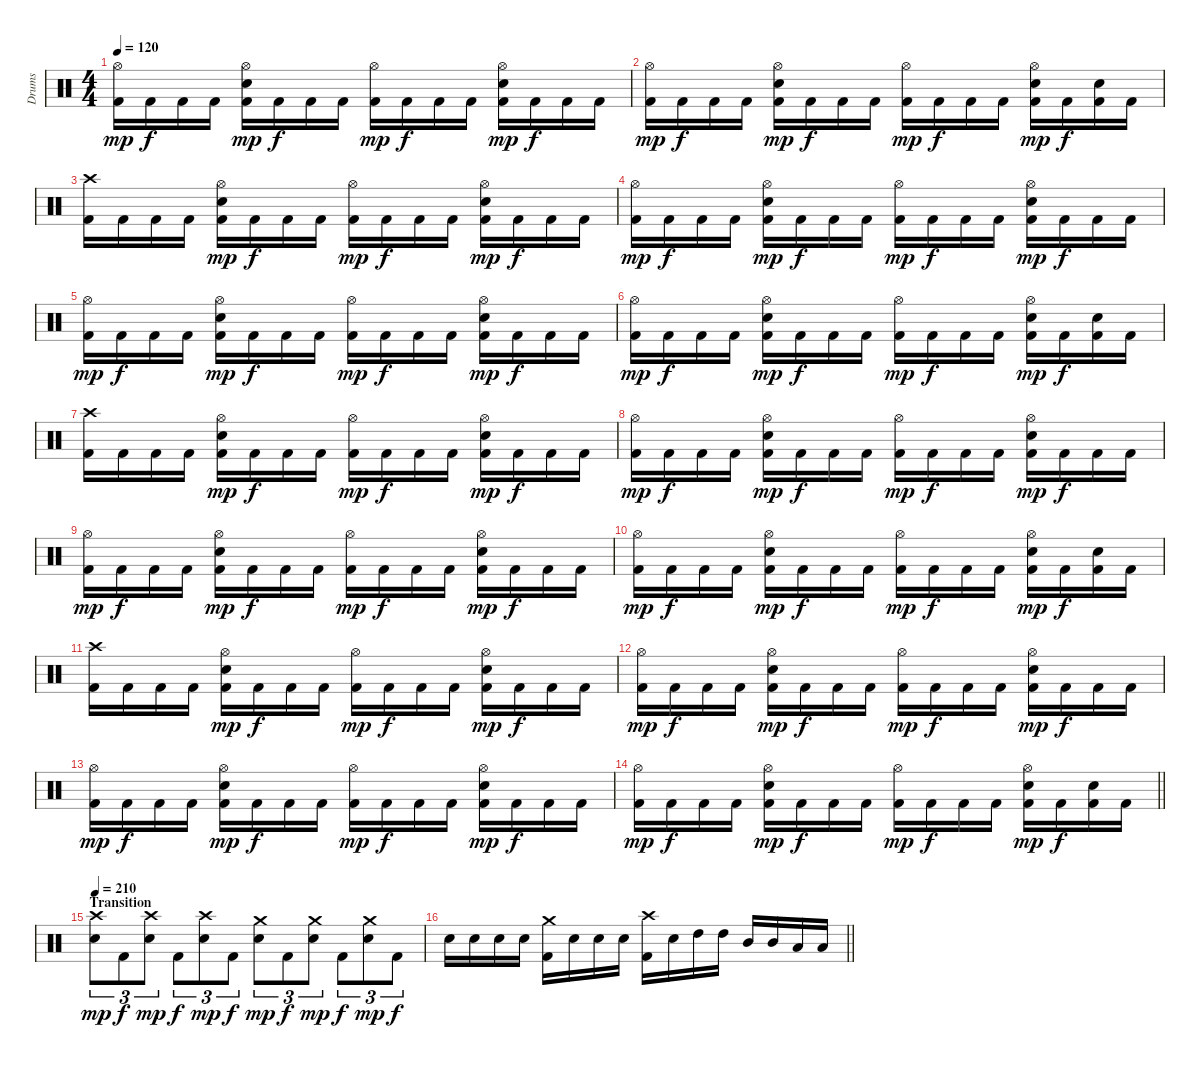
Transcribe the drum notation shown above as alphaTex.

\track ("Drums" "Drums") {instrument percussion}
\staff {score}
\articulation defaults
\ts (4 4)
\tempo 120
\clef neutral
\ks c
("Hi-Hat (open)" "Kick (hit) 2").16{dy mp} "Kick (hit) 2".16{dy f} "Kick (hit) 2".16 "Kick (hit) 2".16 ("Hi-Hat (open)" "Snare (hit) 2" "Kick (hit) 2").16{dy mp} "Kick (hit) 2".16{dy f} "Kick (hit) 2".16 "Kick (hit) 2".16 ("Hi-Hat (open)" "Kick (hit) 2").16{dy mp} "Kick (hit) 2".16{dy f} "Kick (hit) 2".16 "Kick (hit) 2".16 ("Hi-Hat (open)" "Snare (hit) 2" "Kick (hit) 2").16{dy mp} "Kick (hit) 2".16{dy f} "Kick (hit) 2".16 "Kick (hit) 2".16 |
("Hi-Hat (open)" "Kick (hit) 2").16{dy mp} "Kick (hit) 2".16{dy f} "Kick (hit) 2".16 "Kick (hit) 2".16 ("Hi-Hat (open)" "Snare (hit) 2" "Kick (hit) 2").16{dy mp} "Kick (hit) 2".16{dy f} "Kick (hit) 2".16 "Kick (hit) 2".16 ("Hi-Hat (open)" "Kick (hit) 2").16{dy mp} "Kick (hit) 2".16{dy f} "Kick (hit) 2".16 "Kick (hit) 2".16 ("Hi-Hat (open)" "Snare (hit) 2" "Kick (hit) 2").16{dy mp} "Kick (hit) 2".16{dy f} ("Snare (hit) 2" "Kick (hit) 2").16 "Kick (hit) 2".16 |
("Crash high (hit)" "Kick (hit) 2").16 "Kick (hit) 2".16 "Kick (hit) 2".16 "Kick (hit) 2".16 ("Hi-Hat (open)" "Snare (hit) 2" "Kick (hit) 2").16{dy mp} "Kick (hit) 2".16{dy f} "Kick (hit) 2".16 "Kick (hit) 2".16 ("Hi-Hat (open)" "Kick (hit) 2").16{dy mp} "Kick (hit) 2".16{dy f} "Kick (hit) 2".16 "Kick (hit) 2".16 ("Hi-Hat (open)" "Snare (hit) 2" "Kick (hit) 2").16{dy mp} "Kick (hit) 2".16{dy f} "Kick (hit) 2".16 "Kick (hit) 2".16 |
("Hi-Hat (open)" "Kick (hit) 2").16{dy mp} "Kick (hit) 2".16{dy f} "Kick (hit) 2".16 "Kick (hit) 2".16 ("Hi-Hat (open)" "Snare (hit) 2" "Kick (hit) 2").16{dy mp} "Kick (hit) 2".16{dy f} "Kick (hit) 2".16 "Kick (hit) 2".16 ("Hi-Hat (open)" "Kick (hit) 2").16{dy mp} "Kick (hit) 2".16{dy f} "Kick (hit) 2".16 "Kick (hit) 2".16 ("Hi-Hat (open)" "Snare (hit) 2" "Kick (hit) 2").16{dy mp} "Kick (hit) 2".16{dy f} "Kick (hit) 2".16 "Kick (hit) 2".16 |
("Hi-Hat (open)" "Kick (hit) 2").16{dy mp} "Kick (hit) 2".16{dy f} "Kick (hit) 2".16 "Kick (hit) 2".16 ("Hi-Hat (open)" "Snare (hit) 2" "Kick (hit) 2").16{dy mp} "Kick (hit) 2".16{dy f} "Kick (hit) 2".16 "Kick (hit) 2".16 ("Hi-Hat (open)" "Kick (hit) 2").16{dy mp} "Kick (hit) 2".16{dy f} "Kick (hit) 2".16 "Kick (hit) 2".16 ("Hi-Hat (open)" "Snare (hit) 2" "Kick (hit) 2").16{dy mp} "Kick (hit) 2".16{dy f} "Kick (hit) 2".16 "Kick (hit) 2".16 |
("Hi-Hat (open)" "Kick (hit) 2").16{dy mp} "Kick (hit) 2".16{dy f} "Kick (hit) 2".16 "Kick (hit) 2".16 ("Hi-Hat (open)" "Snare (hit) 2" "Kick (hit) 2").16{dy mp} "Kick (hit) 2".16{dy f} "Kick (hit) 2".16 "Kick (hit) 2".16 ("Hi-Hat (open)" "Kick (hit) 2").16{dy mp} "Kick (hit) 2".16{dy f} "Kick (hit) 2".16 "Kick (hit) 2".16 ("Hi-Hat (open)" "Snare (hit) 2" "Kick (hit) 2").16{dy mp} "Kick (hit) 2".16{dy f} ("Snare (hit) 2" "Kick (hit) 2").16 "Kick (hit) 2".16 |
("Crash high (hit)" "Kick (hit) 2").16 "Kick (hit) 2".16 "Kick (hit) 2".16 "Kick (hit) 2".16 ("Hi-Hat (open)" "Snare (hit) 2" "Kick (hit) 2").16{dy mp} "Kick (hit) 2".16{dy f} "Kick (hit) 2".16 "Kick (hit) 2".16 ("Hi-Hat (open)" "Kick (hit) 2").16{dy mp} "Kick (hit) 2".16{dy f} "Kick (hit) 2".16 "Kick (hit) 2".16 ("Hi-Hat (open)" "Snare (hit) 2" "Kick (hit) 2").16{dy mp} "Kick (hit) 2".16{dy f} "Kick (hit) 2".16 "Kick (hit) 2".16 |
("Hi-Hat (open)" "Kick (hit) 2").16{dy mp} "Kick (hit) 2".16{dy f} "Kick (hit) 2".16 "Kick (hit) 2".16 ("Hi-Hat (open)" "Snare (hit) 2" "Kick (hit) 2").16{dy mp} "Kick (hit) 2".16{dy f} "Kick (hit) 2".16 "Kick (hit) 2".16 ("Hi-Hat (open)" "Kick (hit) 2").16{dy mp} "Kick (hit) 2".16{dy f} "Kick (hit) 2".16 "Kick (hit) 2".16 ("Hi-Hat (open)" "Snare (hit) 2" "Kick (hit) 2").16{dy mp} "Kick (hit) 2".16{dy f} "Kick (hit) 2".16 "Kick (hit) 2".16 |
("Hi-Hat (open)" "Kick (hit) 2").16{dy mp} "Kick (hit) 2".16{dy f} "Kick (hit) 2".16 "Kick (hit) 2".16 ("Hi-Hat (open)" "Snare (hit) 2" "Kick (hit) 2").16{dy mp} "Kick (hit) 2".16{dy f} "Kick (hit) 2".16 "Kick (hit) 2".16 ("Hi-Hat (open)" "Kick (hit) 2").16{dy mp} "Kick (hit) 2".16{dy f} "Kick (hit) 2".16 "Kick (hit) 2".16 ("Hi-Hat (open)" "Snare (hit) 2" "Kick (hit) 2").16{dy mp} "Kick (hit) 2".16{dy f} "Kick (hit) 2".16 "Kick (hit) 2".16 |
("Hi-Hat (open)" "Kick (hit) 2").16{dy mp} "Kick (hit) 2".16{dy f} "Kick (hit) 2".16 "Kick (hit) 2".16 ("Hi-Hat (open)" "Snare (hit) 2" "Kick (hit) 2").16{dy mp} "Kick (hit) 2".16{dy f} "Kick (hit) 2".16 "Kick (hit) 2".16 ("Hi-Hat (open)" "Kick (hit) 2").16{dy mp} "Kick (hit) 2".16{dy f} "Kick (hit) 2".16 "Kick (hit) 2".16 ("Hi-Hat (open)" "Snare (hit) 2" "Kick (hit) 2").16{dy mp} "Kick (hit) 2".16{dy f} ("Snare (hit) 2" "Kick (hit) 2").16 "Kick (hit) 2".16 |
("Crash high (hit)" "Kick (hit) 2").16 "Kick (hit) 2".16 "Kick (hit) 2".16 "Kick (hit) 2".16 ("Hi-Hat (open)" "Snare (hit) 2" "Kick (hit) 2").16{dy mp} "Kick (hit) 2".16{dy f} "Kick (hit) 2".16 "Kick (hit) 2".16 ("Hi-Hat (open)" "Kick (hit) 2").16{dy mp} "Kick (hit) 2".16{dy f} "Kick (hit) 2".16 "Kick (hit) 2".16 ("Hi-Hat (open)" "Snare (hit) 2" "Kick (hit) 2").16{dy mp} "Kick (hit) 2".16{dy f} "Kick (hit) 2".16 "Kick (hit) 2".16 |
("Hi-Hat (open)" "Kick (hit) 2").16{dy mp} "Kick (hit) 2".16{dy f} "Kick (hit) 2".16 "Kick (hit) 2".16 ("Hi-Hat (open)" "Snare (hit) 2" "Kick (hit) 2").16{dy mp} "Kick (hit) 2".16{dy f} "Kick (hit) 2".16 "Kick (hit) 2".16 ("Hi-Hat (open)" "Kick (hit) 2").16{dy mp} "Kick (hit) 2".16{dy f} "Kick (hit) 2".16 "Kick (hit) 2".16 ("Hi-Hat (open)" "Snare (hit) 2" "Kick (hit) 2").16{dy mp} "Kick (hit) 2".16{dy f} "Kick (hit) 2".16 "Kick (hit) 2".16 |
("Hi-Hat (open)" "Kick (hit) 2").16{dy mp} "Kick (hit) 2".16{dy f} "Kick (hit) 2".16 "Kick (hit) 2".16 ("Hi-Hat (open)" "Snare (hit) 2" "Kick (hit) 2").16{dy mp} "Kick (hit) 2".16{dy f} "Kick (hit) 2".16 "Kick (hit) 2".16 ("Hi-Hat (open)" "Kick (hit) 2").16{dy mp} "Kick (hit) 2".16{dy f} "Kick (hit) 2".16 "Kick (hit) 2".16 ("Hi-Hat (open)" "Snare (hit) 2" "Kick (hit) 2").16{dy mp} "Kick (hit) 2".16{dy f} "Kick (hit) 2".16 "Kick (hit) 2".16 |
\barLineRight lightlight
("Hi-Hat (open)" "Kick (hit) 2").16{dy mp} "Kick (hit) 2".16{dy f} "Kick (hit) 2".16 "Kick (hit) 2".16 ("Hi-Hat (open)" "Snare (hit) 2" "Kick (hit) 2").16{dy mp} "Kick (hit) 2".16{dy f} "Kick (hit) 2".16 "Kick (hit) 2".16 ("Hi-Hat (open)" "Kick (hit) 2").16{dy mp} "Kick (hit) 2".16{dy f} "Kick (hit) 2".16 "Kick (hit) 2".16 ("Hi-Hat (open)" "Snare (hit) 2" "Kick (hit) 2").16{dy mp} "Kick (hit) 2".16{dy f} ("Snare (hit) 2" "Kick (hit) 2").16 "Kick (hit) 2".16 |
\section ("" "Transition")
\tempo 210
("Crash high (hit)" "Snare (hit) 2").8{tu (3 2) dy mp} "Kick (hit) 2".8{tu (3 2) dy f} ("Crash high (hit)" "Snare (hit) 2").8{tu (3 2) dy mp} "Kick (hit) 2".8{tu (3 2) dy f} ("Crash high (hit)" "Snare (hit) 2").8{tu (3 2) dy mp} "Kick (hit) 2".8{tu (3 2) dy f} ("Crash medium (hit)" "Snare (hit) 2").8{tu (3 2) dy mp} "Kick (hit) 2".8{tu (3 2) dy f} ("Crash medium (hit)" "Snare (hit) 2").8{tu (3 2) dy mp} "Kick (hit) 2".8{tu (3 2) dy f} ("Crash medium (hit)" "Snare (hit) 2").8{tu (3 2) dy mp} "Kick (hit) 2".8{tu (3 2) dy f} |
\barLineRight lightlight "Snare (hit) 2".16 "Snare (hit) 2".16 "Snare (hit) 2".16 "Snare (hit) 2".16
("Crash medium (hit)" "Kick (hit) 2").16 "Snare (hit) 2".16 "Snare (hit) 2".16 "Snare (hit) 2".16 ("Crash high (hit)" "Kick (hit) 2").16 "Snare (hit) 2".16 "High Tom (hit)".16 "High Tom (hit)".16 "Mid Tom (hit)".16 "Mid Tom (hit)".16 "Low Tom (hit)".16 "Low Tom (hit)".16
